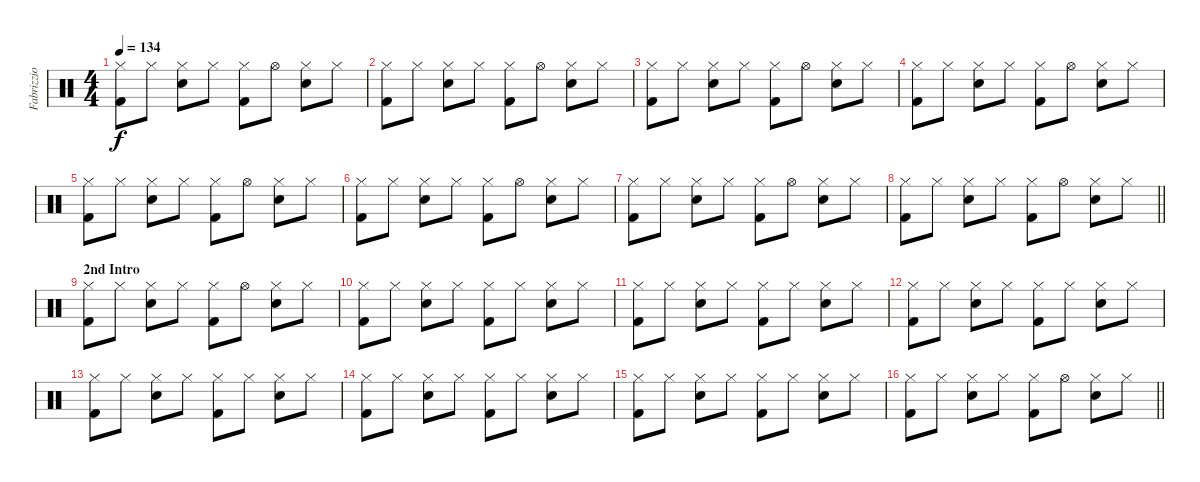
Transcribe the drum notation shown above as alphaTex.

\track ("Fabrizzio" "Fabrizzio") {instrument percussion}
\staff {score}
\articulation defaults
\ts (4 4)
\tempo 134
\clef neutral
\ks c
("Hi-Hat (closed)" "Kick (hit) 2").8{dy f} "Hi-Hat (closed)".8 ("Hi-Hat (closed)" "Snare (hit) 2").8 "Hi-Hat (closed)".8 ("Hi-Hat (closed)" "Kick (hit) 2").8 "Hi-Hat (open)".8 ("Hi-Hat (closed)" "Snare (hit) 2").8 "Hi-Hat (closed)".8 |
("Hi-Hat (closed)" "Kick (hit) 2").8 "Hi-Hat (closed)".8 ("Hi-Hat (closed)" "Snare (hit) 2").8 "Hi-Hat (closed)".8 ("Hi-Hat (closed)" "Kick (hit) 2").8 "Hi-Hat (open)".8 ("Hi-Hat (closed)" "Snare (hit) 2").8 "Hi-Hat (closed)".8 |
("Hi-Hat (closed)" "Kick (hit) 2").8 "Hi-Hat (closed)".8 ("Hi-Hat (closed)" "Snare (hit) 2").8 "Hi-Hat (closed)".8 ("Hi-Hat (closed)" "Kick (hit) 2").8 "Hi-Hat (open)".8 ("Hi-Hat (closed)" "Snare (hit) 2").8 "Hi-Hat (closed)".8 |
("Hi-Hat (closed)" "Kick (hit) 2").8 "Hi-Hat (closed)".8 ("Hi-Hat (closed)" "Snare (hit) 2").8 "Hi-Hat (closed)".8 ("Hi-Hat (closed)" "Kick (hit) 2").8 "Hi-Hat (open)".8 ("Hi-Hat (closed)" "Snare (hit) 2").8 "Hi-Hat (closed)".8 |
("Hi-Hat (closed)" "Kick (hit) 2").8 "Hi-Hat (closed)".8 ("Hi-Hat (closed)" "Snare (hit) 2").8 "Hi-Hat (closed)".8 ("Hi-Hat (closed)" "Kick (hit) 2").8 "Hi-Hat (open)".8 ("Hi-Hat (closed)" "Snare (hit) 2").8 "Hi-Hat (closed)".8 |
("Hi-Hat (closed)" "Kick (hit) 2").8 "Hi-Hat (closed)".8 ("Hi-Hat (closed)" "Snare (hit) 2").8 "Hi-Hat (closed)".8 ("Hi-Hat (closed)" "Kick (hit) 2").8 "Hi-Hat (open)".8 ("Hi-Hat (closed)" "Snare (hit) 2").8 "Hi-Hat (closed)".8 |
("Hi-Hat (closed)" "Kick (hit) 2").8 "Hi-Hat (closed)".8 ("Hi-Hat (closed)" "Snare (hit) 2").8 "Hi-Hat (closed)".8 ("Hi-Hat (closed)" "Kick (hit) 2").8 "Hi-Hat (open)".8 ("Hi-Hat (closed)" "Snare (hit) 2").8 "Hi-Hat (closed)".8 |
\barLineRight lightlight
("Hi-Hat (closed)" "Kick (hit) 2").8 "Hi-Hat (closed)".8 ("Hi-Hat (closed)" "Snare (hit) 2").8 "Hi-Hat (closed)".8 ("Hi-Hat (closed)" "Kick (hit) 2").8 "Hi-Hat (open)".8 ("Hi-Hat (closed)" "Snare (hit) 2").8 "Hi-Hat (closed)".8 |
\section ("" "2nd Intro")
("Hi-Hat (closed)" "Kick (hit) 2").8 "Hi-Hat (closed)".8 ("Hi-Hat (closed)" "Snare (hit) 2").8 "Hi-Hat (closed)".8 ("Hi-Hat (closed)" "Kick (hit) 2").8 "Hi-Hat (open)".8 ("Hi-Hat (closed)" "Snare (hit) 2").8 "Hi-Hat (closed)".8 |
("Hi-Hat (closed)" "Kick (hit) 2").8 "Hi-Hat (closed)".8 ("Hi-Hat (closed)" "Snare (hit) 2").8 "Hi-Hat (closed)".8 ("Hi-Hat (closed)" "Kick (hit) 2").8 "Hi-Hat (closed)".8 ("Hi-Hat (closed)" "Snare (hit) 2").8 "Hi-Hat (closed)".8 |
("Hi-Hat (closed)" "Kick (hit) 2").8 "Hi-Hat (closed)".8 ("Hi-Hat (closed)" "Snare (hit) 2").8 "Hi-Hat (closed)".8 ("Hi-Hat (closed)" "Kick (hit) 2").8 "Hi-Hat (closed)".8 ("Hi-Hat (closed)" "Snare (hit) 2").8 "Hi-Hat (closed)".8 |
("Hi-Hat (closed)" "Kick (hit) 2").8 "Hi-Hat (closed)".8 ("Hi-Hat (closed)" "Snare (hit) 2").8 "Hi-Hat (closed)".8 ("Hi-Hat (closed)" "Kick (hit) 2").8 "Hi-Hat (closed)".8 ("Hi-Hat (closed)" "Snare (hit) 2").8 "Hi-Hat (closed)".8 |
("Hi-Hat (closed)" "Kick (hit) 2").8 "Hi-Hat (closed)".8 ("Hi-Hat (closed)" "Snare (hit) 2").8 "Hi-Hat (closed)".8 ("Hi-Hat (closed)" "Kick (hit) 2").8 "Hi-Hat (closed)".8 ("Hi-Hat (closed)" "Snare (hit) 2").8 "Hi-Hat (closed)".8 |
("Hi-Hat (closed)" "Kick (hit) 2").8 "Hi-Hat (closed)".8 ("Hi-Hat (closed)" "Snare (hit) 2").8 "Hi-Hat (closed)".8 ("Hi-Hat (closed)" "Kick (hit) 2").8 "Hi-Hat (closed)".8 ("Hi-Hat (closed)" "Snare (hit) 2").8 "Hi-Hat (closed)".8 |
("Hi-Hat (closed)" "Kick (hit) 2").8 "Hi-Hat (closed)".8 ("Hi-Hat (closed)" "Snare (hit) 2").8 "Hi-Hat (closed)".8 ("Hi-Hat (closed)" "Kick (hit) 2").8 "Hi-Hat (closed)".8 ("Hi-Hat (closed)" "Snare (hit) 2").8 "Hi-Hat (closed)".8 |
\barLineRight lightlight
("Hi-Hat (closed)" "Kick (hit) 2").8 "Hi-Hat (closed)".8 ("Hi-Hat (closed)" "Snare (hit) 2").8 "Hi-Hat (closed)".8 ("Hi-Hat (closed)" "Kick (hit) 2").8 "Hi-Hat (open)".8 ("Hi-Hat (closed)" "Snare (hit) 2").8 "Hi-Hat (closed)".8
